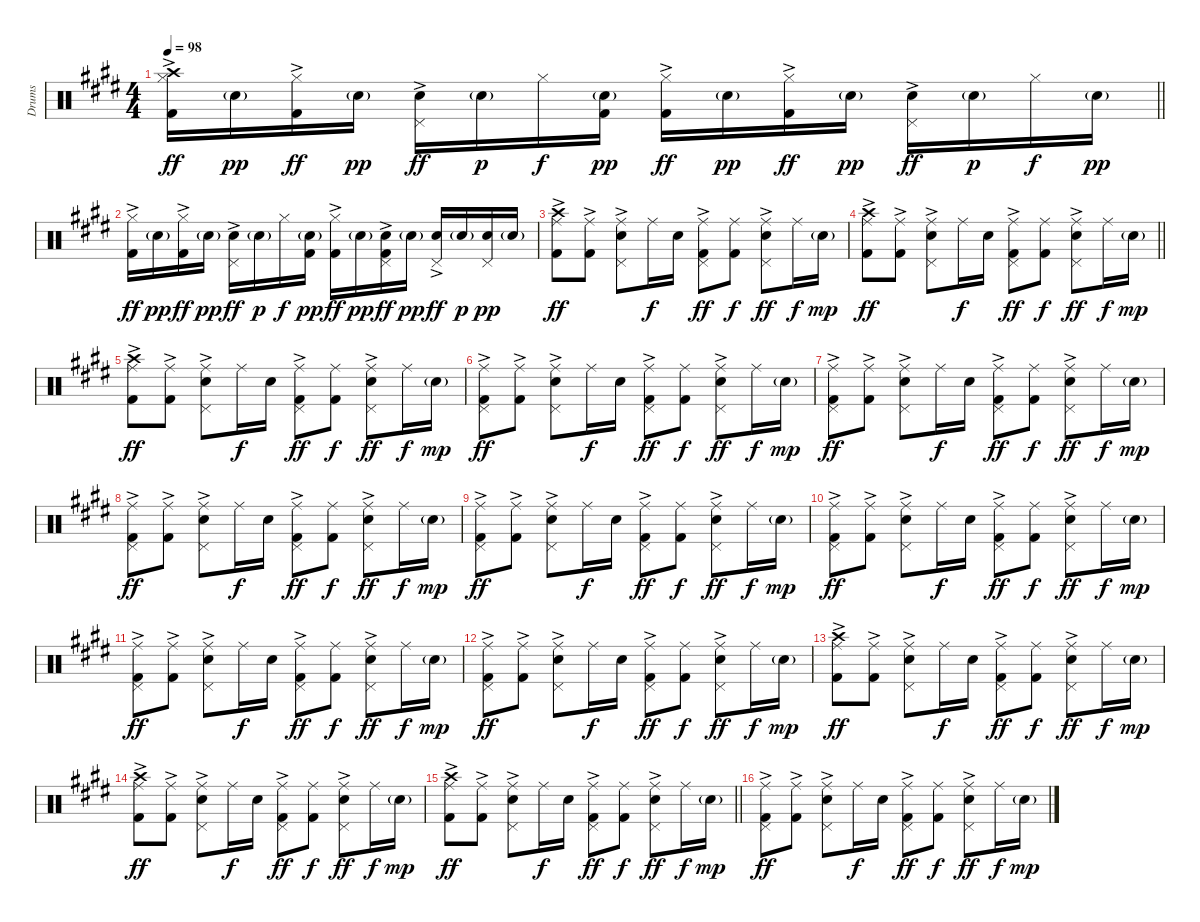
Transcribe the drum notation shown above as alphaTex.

\track ("Drums" "Drums") {instrument percussion}
\staff {score}
\articulation defaults
\ts (4 4)
\tempo 98
\clef neutral
\barLineRight lightlight
\ks e
("Hi-Hat (closed)" "Crash high (hit)" "Kick (hit) 2"{ac}).16{dy ff} "Snare (hit) 2"{g}.16{dy pp} ("Hi-Hat (closed)" "Kick (hit) 2"{ac}).16{dy ff} "Snare (hit) 2"{g}.16{dy pp} ("Pedal Hi-Hat (hit)" "Snare (hit) 2"{ac}).16{dy ff} "Snare (hit) 2"{g}.16{dy p} "Hi-Hat (closed)".16{dy f} ("Snare (hit) 2"{g} "Kick (hit) 2").16{dy pp} ("Hi-Hat (closed)" "Kick (hit) 2"{ac}).16{dy ff} "Snare (hit) 2"{g}.16{dy pp} ("Hi-Hat (closed)" "Kick (hit) 2"{ac}).16{dy ff} "Snare (hit) 2"{g}.16{dy pp} ("Pedal Hi-Hat (hit)" "Snare (hit) 2"{ac}).16{dy ff} "Snare (hit) 2"{g}.16{dy p} "Hi-Hat (closed)".16{dy f} "Snare (hit) 2"{g}.16{dy pp} |
("Hi-Hat (closed)" "Kick (hit) 2"{ac}).16{dy ff} "Snare (hit) 2"{g}.16{dy pp} ("Hi-Hat (closed)" "Kick (hit) 2"{ac}).16{dy ff} "Snare (hit) 2"{g}.16{dy pp} ("Pedal Hi-Hat (hit)" "Snare (hit) 2"{ac}).16{dy ff} "Snare (hit) 2"{g}.16{dy p} "Hi-Hat (closed)".16{dy f} ("Snare (hit) 2"{g} "Kick (hit) 2").16{dy pp} ("Hi-Hat (closed)" "Kick (hit) 2"{ac}).16{dy ff} "Snare (hit) 2"{g}.16{dy pp} ("Pedal Hi-Hat (hit)" "Snare (hit) 2" "Kick (hit) 2"{ac}).16{dy ff} "Snare (hit) 2"{g}.16{dy pp} ("Pedal Hi-Hat (hit)" "Snare (hit) 2"{ac}).16{dy ff} "Snare (hit) 2"{g}.16{dy p} ("Pedal Hi-Hat (hit)" "Snare (hit) 2").16{dy pp} "Snare (hit) 2"{g}.16 |
("Crash high (hit)" "Ride (middle)" "Kick (hit) 2"{ac}).8{dy ff} ("Ride (middle)" "Kick (hit) 2"{ac}).8 ("Pedal Hi-Hat (hit)" "Snare (hit) 2"{ac} "Ride (middle)").8 "Ride (middle)".16{dy f} "Snare (hit) 2".16 ("Pedal Hi-Hat (hit)" "Ride (middle)" "Kick (hit) 2"{ac}).8{dy ff} ("Ride (middle)" "Kick (hit) 2").8{dy f} ("Pedal Hi-Hat (hit)" "Snare (hit) 2"{ac} "Ride (middle)").8{dy ff} "Ride (middle)".16{dy f} "Snare (hit) 2"{g}.16{dy mp} |
\barLineRight lightlight
("Crash high (hit)" "Ride (middle)" "Kick (hit) 2"{ac}).8{dy ff} ("Ride (middle)" "Kick (hit) 2"{ac}).8 ("Pedal Hi-Hat (hit)" "Snare (hit) 2"{ac} "Ride (middle)").8 "Ride (middle)".16{dy f} "Snare (hit) 2".16 ("Pedal Hi-Hat (hit)" "Ride (middle)" "Kick (hit) 2"{ac}).8{dy ff} ("Ride (middle)" "Kick (hit) 2").8{dy f} ("Pedal Hi-Hat (hit)" "Snare (hit) 2"{ac} "Ride (middle)").8{dy ff} "Ride (middle)".16{dy f} "Snare (hit) 2"{g}.16{dy mp} |
("Crash high (hit)" "Ride (middle)" "Kick (hit) 2"{ac}).8{dy ff} ("Ride (middle)" "Kick (hit) 2"{ac}).8 ("Pedal Hi-Hat (hit)" "Snare (hit) 2"{ac} "Ride (middle)").8 "Ride (middle)".16{dy f} "Snare (hit) 2".16 ("Pedal Hi-Hat (hit)" "Ride (middle)" "Kick (hit) 2"{ac}).8{dy ff} ("Ride (middle)" "Kick (hit) 2").8{dy f} ("Pedal Hi-Hat (hit)" "Snare (hit) 2"{ac} "Ride (middle)").8{dy ff} "Ride (middle)".16{dy f} "Snare (hit) 2"{g}.16{dy mp} |
("Pedal Hi-Hat (hit)" "Ride (middle)" "Kick (hit) 2"{ac}).8{dy ff} ("Ride (middle)" "Kick (hit) 2"{ac}).8 ("Pedal Hi-Hat (hit)" "Snare (hit) 2"{ac} "Ride (middle)").8 "Ride (middle)".16{dy f} "Snare (hit) 2".16 ("Pedal Hi-Hat (hit)" "Ride (middle)" "Kick (hit) 2"{ac}).8{dy ff} ("Ride (middle)" "Kick (hit) 2").8{dy f} ("Pedal Hi-Hat (hit)" "Snare (hit) 2"{ac} "Ride (middle)").8{dy ff} "Ride (middle)".16{dy f} "Snare (hit) 2"{g}.16{dy mp} |
("Pedal Hi-Hat (hit)" "Ride (middle)" "Kick (hit) 2"{ac}).8{dy ff} ("Ride (middle)" "Kick (hit) 2"{ac}).8 ("Pedal Hi-Hat (hit)" "Snare (hit) 2"{ac} "Ride (middle)").8 "Ride (middle)".16{dy f} "Snare (hit) 2".16 ("Pedal Hi-Hat (hit)" "Ride (middle)" "Kick (hit) 2"{ac}).8{dy ff} ("Ride (middle)" "Kick (hit) 2").8{dy f} ("Pedal Hi-Hat (hit)" "Snare (hit) 2"{ac} "Ride (middle)").8{dy ff} "Ride (middle)".16{dy f} "Snare (hit) 2"{g}.16{dy mp} |
("Pedal Hi-Hat (hit)" "Ride (middle)" "Kick (hit) 2"{ac}).8{dy ff} ("Ride (middle)" "Kick (hit) 2"{ac}).8 ("Pedal Hi-Hat (hit)" "Snare (hit) 2"{ac} "Ride (middle)").8 "Ride (middle)".16{dy f} "Snare (hit) 2".16 ("Pedal Hi-Hat (hit)" "Ride (middle)" "Kick (hit) 2"{ac}).8{dy ff} ("Ride (middle)" "Kick (hit) 2").8{dy f} ("Pedal Hi-Hat (hit)" "Snare (hit) 2"{ac} "Ride (middle)").8{dy ff} "Ride (middle)".16{dy f} "Snare (hit) 2"{g}.16{dy mp} |
("Pedal Hi-Hat (hit)" "Ride (middle)" "Kick (hit) 2"{ac}).8{dy ff} ("Ride (middle)" "Kick (hit) 2"{ac}).8 ("Pedal Hi-Hat (hit)" "Snare (hit) 2"{ac} "Ride (middle)").8 "Ride (middle)".16{dy f} "Snare (hit) 2".16 ("Pedal Hi-Hat (hit)" "Ride (middle)" "Kick (hit) 2"{ac}).8{dy ff} ("Ride (middle)" "Kick (hit) 2").8{dy f} ("Pedal Hi-Hat (hit)" "Snare (hit) 2"{ac} "Ride (middle)").8{dy ff} "Ride (middle)".16{dy f} "Snare (hit) 2"{g}.16{dy mp} |
("Pedal Hi-Hat (hit)" "Ride (middle)" "Kick (hit) 2"{ac}).8{dy ff} ("Ride (middle)" "Kick (hit) 2"{ac}).8 ("Pedal Hi-Hat (hit)" "Snare (hit) 2"{ac} "Ride (middle)").8 "Ride (middle)".16{dy f} "Snare (hit) 2".16 ("Pedal Hi-Hat (hit)" "Ride (middle)" "Kick (hit) 2"{ac}).8{dy ff} ("Ride (middle)" "Kick (hit) 2").8{dy f} ("Pedal Hi-Hat (hit)" "Snare (hit) 2"{ac} "Ride (middle)").8{dy ff} "Ride (middle)".16{dy f} "Snare (hit) 2"{g}.16{dy mp} |
("Pedal Hi-Hat (hit)" "Ride (middle)" "Kick (hit) 2"{ac}).8{dy ff} ("Ride (middle)" "Kick (hit) 2"{ac}).8 ("Pedal Hi-Hat (hit)" "Snare (hit) 2"{ac} "Ride (middle)").8 "Ride (middle)".16{dy f} "Snare (hit) 2".16 ("Pedal Hi-Hat (hit)" "Ride (middle)" "Kick (hit) 2"{ac}).8{dy ff} ("Ride (middle)" "Kick (hit) 2").8{dy f} ("Pedal Hi-Hat (hit)" "Snare (hit) 2"{ac} "Ride (middle)").8{dy ff} "Ride (middle)".16{dy f} "Snare (hit) 2"{g}.16{dy mp} |
("Pedal Hi-Hat (hit)" "Ride (middle)" "Kick (hit) 2"{ac}).8{dy ff} ("Ride (middle)" "Kick (hit) 2"{ac}).8 ("Pedal Hi-Hat (hit)" "Snare (hit) 2"{ac} "Ride (middle)").8 "Ride (middle)".16{dy f} "Snare (hit) 2".16 ("Pedal Hi-Hat (hit)" "Ride (middle)" "Kick (hit) 2"{ac}).8{dy ff} ("Ride (middle)" "Kick (hit) 2").8{dy f} ("Pedal Hi-Hat (hit)" "Snare (hit) 2"{ac} "Ride (middle)").8{dy ff} "Ride (middle)".16{dy f} "Snare (hit) 2"{g}.16{dy mp} |
("Crash high (hit)" "Ride (middle)" "Kick (hit) 2"{ac}).8{dy ff} ("Ride (middle)" "Kick (hit) 2"{ac}).8 ("Pedal Hi-Hat (hit)" "Snare (hit) 2"{ac} "Ride (middle)").8 "Ride (middle)".16{dy f} "Snare (hit) 2".16 ("Pedal Hi-Hat (hit)" "Ride (middle)" "Kick (hit) 2"{ac}).8{dy ff} ("Ride (middle)" "Kick (hit) 2").8{dy f} ("Pedal Hi-Hat (hit)" "Snare (hit) 2"{ac} "Ride (middle)").8{dy ff} "Ride (middle)".16{dy f} "Snare (hit) 2"{g}.16{dy mp} |
("Crash high (hit)" "Ride (middle)" "Kick (hit) 2"{ac}).8{dy ff} ("Ride (middle)" "Kick (hit) 2"{ac}).8 ("Pedal Hi-Hat (hit)" "Snare (hit) 2"{ac} "Ride (middle)").8 "Ride (middle)".16{dy f} "Snare (hit) 2".16 ("Pedal Hi-Hat (hit)" "Ride (middle)" "Kick (hit) 2"{ac}).8{dy ff} ("Ride (middle)" "Kick (hit) 2").8{dy f} ("Pedal Hi-Hat (hit)" "Snare (hit) 2"{ac} "Ride (middle)").8{dy ff} "Ride (middle)".16{dy f} "Snare (hit) 2"{g}.16{dy mp} |
\barLineRight lightlight
("Crash high (hit)" "Ride (middle)" "Kick (hit) 2"{ac}).8{dy ff} ("Ride (middle)" "Kick (hit) 2"{ac}).8 ("Pedal Hi-Hat (hit)" "Snare (hit) 2"{ac} "Ride (middle)").8 "Ride (middle)".16{dy f} "Snare (hit) 2".16 ("Pedal Hi-Hat (hit)" "Ride (middle)" "Kick (hit) 2"{ac}).8{dy ff} ("Ride (middle)" "Kick (hit) 2").8{dy f} ("Pedal Hi-Hat (hit)" "Snare (hit) 2"{ac} "Ride (middle)").8{dy ff} "Ride (middle)".16{dy f} "Snare (hit) 2"{g}.16{dy mp} |
("Pedal Hi-Hat (hit)" "Ride (middle)" "Kick (hit) 2"{ac}).8{dy ff} ("Ride (middle)" "Kick (hit) 2"{ac}).8 ("Pedal Hi-Hat (hit)" "Snare (hit) 2"{ac} "Ride (middle)").8 "Ride (middle)".16{dy f} "Snare (hit) 2".16 ("Pedal Hi-Hat (hit)" "Ride (middle)" "Kick (hit) 2"{ac}).8{dy ff} ("Ride (middle)" "Kick (hit) 2").8{dy f} ("Pedal Hi-Hat (hit)" "Snare (hit) 2"{ac} "Ride (middle)").8{dy ff} "Ride (middle)".16{dy f} "Snare (hit) 2"{g}.16{dy mp}
